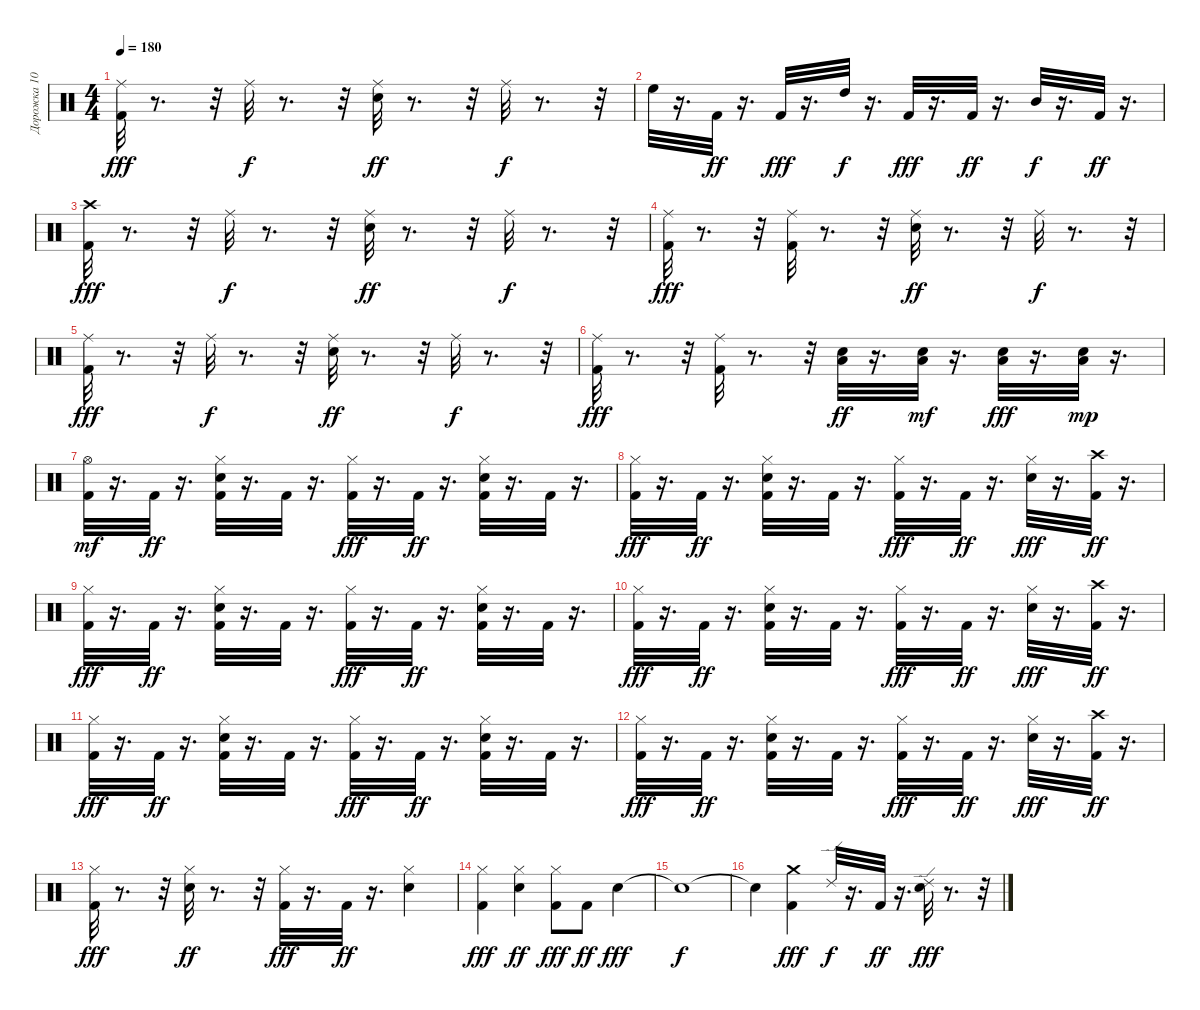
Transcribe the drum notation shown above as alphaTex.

\track ("Дорожка 10" "Дорожка 10") {instrument percussion}
\staff {score}
\articulation defaults
\ts (4 4)
\tempo 180
\clef neutral
\ks c
("Kick (hit) 2" "Ride (middle)").32{dy fff} r.8{d} r.32 "Ride (middle)".32{dy f} r.8{d} r.32 ("Snare (hit) 2" "Ride (middle)").32{dy ff} r.8{d} r.32 "Ride (middle)".32{dy f} r.8{d} r.32 |
"High Floor Tom (hit)".32 r.16{d} "Kick (hit) 2".32{dy ff} r.16{d} "Kick (hit) 2".32{dy fff} r.16{d} "High Tom (hit)".32{dy f} r.16{d} "Kick (hit) 2".32{dy fff} r.16{d} "Kick (hit) 2".32{dy ff} r.16{d} "Mid Tom (hit)".32{dy f} r.16{d} "Kick (hit) 2".32{dy ff} r.16{d} |
("Kick (hit) 2" "Crash high (hit)").32{dy fff} r.8{d} r.32 "Ride (middle)".32{dy f} r.8{d} r.32 ("Snare (hit) 2" "Ride (middle)").32{dy ff} r.8{d} r.32 "Ride (middle)".32{dy f} r.8{d} r.32 |
("Ride (middle)" "Kick (hit) 2").32{dy fff} r.8{d} r.32 ("Kick (hit) 2" "Ride (middle)").32 r.8{d} r.32 ("Snare (hit) 2" "Ride (middle)").32{dy ff} r.8{d} r.32 "Ride (middle)".32{dy f} r.8{d} r.32 |
("Kick (hit) 2" "Ride (middle)").32{dy fff} r.8{d} r.32 "Ride (middle)".32{dy f} r.8{d} r.32 ("Snare (hit) 2" "Ride (middle)").32{dy ff} r.8{d} r.32 "Ride (middle)".32{dy f} r.8{d} r.32 |
("Ride (middle)" "Kick (hit) 2").32{dy fff} r.8{d} r.32 ("Kick (hit) 2" "Ride (middle)").32 r.8{d} r.32 ("Snare (hit) 2" "Low Tom (hit)").32{dy ff} r.16{d} ("Snare (hit) 2" "Low Tom (hit)").32{dy mf} r.16{d} ("Snare (hit) 2" "Low Tom (hit)").32{dy fff} r.16{d} ("Snare (hit) 2" "Low Tom (hit)").32{dy mp} r.16{d} |
("Kick (hit) 2" "Hi-Hat (open)").32{dy mf} r.16{d} "Kick (hit) 2".32{dy ff} r.16{d} ("Kick (hit) 2" "Snare (hit) 2" "Hi-Hat (closed)").32 r.16{d} "Kick (hit) 2".32 r.16{d} ("Kick (hit) 2" "Hi-Hat (closed)").32{dy fff} r.16{d} "Kick (hit) 2".32{dy ff} r.16{d} ("Kick (hit) 2" "Snare (hit) 2" "Hi-Hat (closed)").32 r.16{d} "Kick (hit) 2".32 r.16{d} |
("Hi-Hat (closed)" "Kick (hit) 2").32{dy fff} r.16{d} "Kick (hit) 2".32{dy ff} r.16{d} ("Kick (hit) 2" "Snare (hit) 2" "Hi-Hat (closed)").32 r.16{d} "Kick (hit) 2".32 r.16{d} ("Kick (hit) 2" "Hi-Hat (closed)").32{dy fff} r.16{d} "Kick (hit) 2".32{dy ff} r.16{d} ("Snare (hit) 2" "Hi-Hat (closed)").32{dy fff} r.16{d} ("Kick (hit) 2" "Crash high (hit)").32{dy ff} r.16{d} |
("Kick (hit) 2" "Hi-Hat (closed)").32{dy fff} r.16{d} "Kick (hit) 2".32{dy ff} r.16{d} ("Kick (hit) 2" "Snare (hit) 2" "Hi-Hat (closed)").32 r.16{d} "Kick (hit) 2".32 r.16{d} ("Kick (hit) 2" "Hi-Hat (closed)").32{dy fff} r.16{d} "Kick (hit) 2".32{dy ff} r.16{d} ("Kick (hit) 2" "Snare (hit) 2" "Hi-Hat (closed)").32 r.16{d} "Kick (hit) 2".32 r.16{d} |
("Hi-Hat (closed)" "Kick (hit) 2").32{dy fff} r.16{d} "Kick (hit) 2".32{dy ff} r.16{d} ("Kick (hit) 2" "Snare (hit) 2" "Hi-Hat (closed)").32 r.16{d} "Kick (hit) 2".32 r.16{d} ("Kick (hit) 2" "Hi-Hat (closed)").32{dy fff} r.16{d} "Kick (hit) 2".32{dy ff} r.16{d} ("Snare (hit) 2" "Hi-Hat (closed)").32{dy fff} r.16{d} ("Kick (hit) 2" "Crash high (hit)").32{dy ff} r.16{d} |
("Kick (hit) 2" "Hi-Hat (closed)").32{dy fff} r.16{d} "Kick (hit) 2".32{dy ff} r.16{d} ("Kick (hit) 2" "Snare (hit) 2" "Hi-Hat (closed)").32 r.16{d} "Kick (hit) 2".32 r.16{d} ("Kick (hit) 2" "Hi-Hat (closed)").32{dy fff} r.16{d} "Kick (hit) 2".32{dy ff} r.16{d} ("Kick (hit) 2" "Snare (hit) 2" "Hi-Hat (closed)").32 r.16{d} "Kick (hit) 2".32 r.16{d} |
("Hi-Hat (closed)" "Kick (hit) 2").32{dy fff} r.16{d} "Kick (hit) 2".32{dy ff} r.16{d} ("Kick (hit) 2" "Snare (hit) 2" "Hi-Hat (closed)").32 r.16{d} "Kick (hit) 2".32 r.16{d} ("Kick (hit) 2" "Hi-Hat (closed)").32{dy fff} r.16{d} "Kick (hit) 2".32{dy ff} r.16{d} ("Snare (hit) 2" "Hi-Hat (closed)").32{dy fff} r.16{d} ("Kick (hit) 2" "Crash high (hit)").32{dy ff} r.16{d} |
("Kick (hit) 2" "Hi-Hat (closed)").32{dy fff} r.8{d} r.32 ("Snare (hit) 2" "Hi-Hat (closed)").32{dy ff} r.8{d} r.32 ("Kick (hit) 2" "Hi-Hat (closed)").32{dy fff} r.16{d} "Kick (hit) 2".32{dy ff} r.16{d} ("Snare (hit) 2" "Hi-Hat (closed)").4 |
("Hi-Hat (closed)" "Kick (hit) 2").4{dy fff} ("Snare (hit) 2" "Hi-Hat (closed)").4{dy ff} ("Kick (hit) 2" "Hi-Hat (closed)").8{dy fff} "Kick (hit) 2".8{dy ff} "Snare (hit) 2".4{dy fff} |
"Snare (hit)"{t}.1{dy f} |
"Snare (hit)"{t}.4 ("Kick (hit) 2" "Crash medium (hit)").4{dy fff} "Ride (edge) 2".32{dy f} r.16{d} "Kick (hit) 2".32{dy ff} r.16{d} ("Snare (hit) 2" "Ride (edge) 2").32{dy fff} r.8{d} r.32
